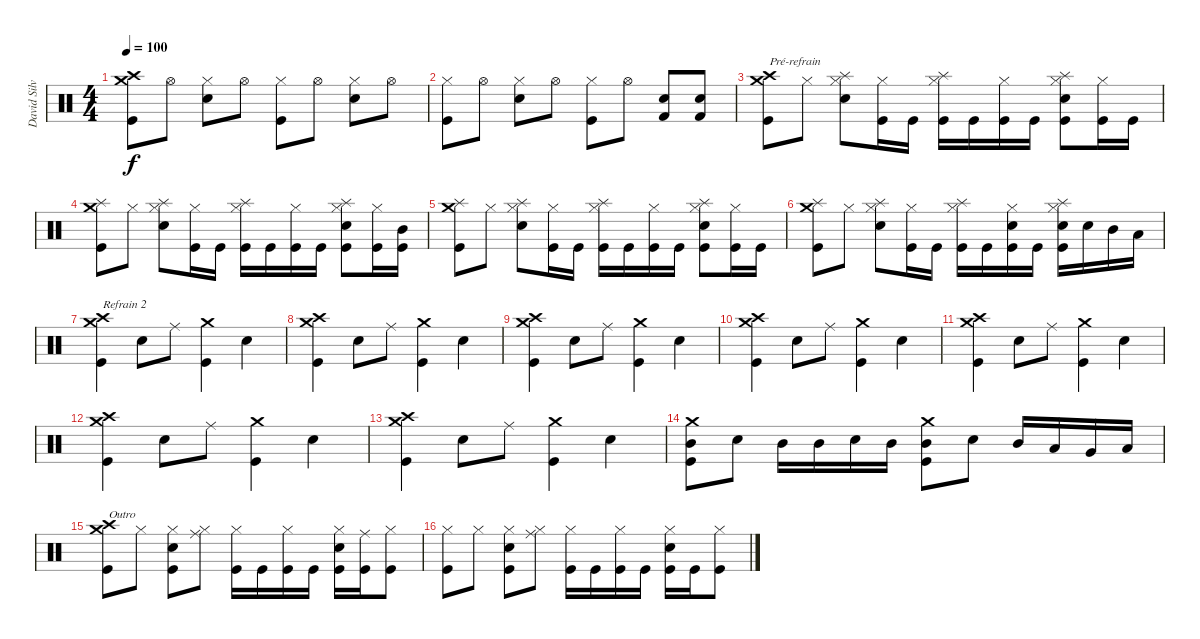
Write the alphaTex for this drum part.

\track ("David Silviera" "David Silv") {instrument percussion}
\staff {score}
\articulation defaults
\ts (4 4)
\tempo 100
\clef neutral
\ks c
("Crash medium (hit)" "Crash high (hit)" "Kick (hit)").8{dy f} "Hi-Hat (open)".8 ("Electric Snare (hit)" "Hi-Hat (closed)").8 "Hi-Hat (open)".8 ("Hi-Hat (closed)" "Kick (hit)").8 "Hi-Hat (open)".8 ("Electric Snare (hit)" "Hi-Hat (closed)").8 "Hi-Hat (open)".8 |
("Hi-Hat (closed)" "Kick (hit)").8 "Hi-Hat (open)".8 ("Electric Snare (hit)" "Hi-Hat (closed)").8 "Hi-Hat (open)".8 ("Hi-Hat (closed)" "Kick (hit)").8 "Hi-Hat (open)".8 ("Kick (hit) 2" "Electric Snare (hit)").8 ("Kick (hit) 2" "Electric Snare (hit)").8 |
("Crash medium (hit)" "Crash high (hit)" "Kick (hit)").8{txt "Pré-refrain"} "Hi-Hat (closed)".8 ("Splash (hit)" "Electric Snare (hit)" "Hi-Hat (closed)").8 ("Hi-Hat (closed)" "Kick (hit)").16 "Kick (hit)".16 ("Splash (hit)" "Hi-Hat (closed)" "Kick (hit)").16 "Kick (hit)".16 ("Hi-Hat (closed)" "Kick (hit)").16 "Kick (hit)".16 ("Splash (hit)" "Electric Snare (hit)" "Hi-Hat (closed)" "Kick (hit)").8 ("Hi-Hat (closed)" "Kick (hit)").16 "Kick (hit)".16 |
("Crash medium (hit)" "Splash (hit)" "Kick (hit)").8 "Hi-Hat (closed)".8 ("Splash (hit)" "Electric Snare (hit)" "Hi-Hat (closed)").8 ("Hi-Hat (closed)" "Kick (hit)").16 "Kick (hit)".16 ("Splash (hit)" "Hi-Hat (closed)" "Kick (hit)").16 "Kick (hit)".16 ("Hi-Hat (closed)" "Kick (hit)").16 "Kick (hit)".16 ("Splash (hit)" "Electric Snare (hit)" "Hi-Hat (closed)" "Kick (hit)").8 ("Hi-Hat (closed)" "Kick (hit)").16 ("Mid Tom (hit)" "Kick (hit)").16 |
("Crash medium (hit)" "Splash (hit)" "Kick (hit)").8 "Hi-Hat (closed)".8 ("Splash (hit)" "Electric Snare (hit)" "Hi-Hat (closed)").8 ("Hi-Hat (closed)" "Kick (hit)").16 "Kick (hit)".16 ("Splash (hit)" "Hi-Hat (closed)" "Kick (hit)").16 "Kick (hit)".16 ("Hi-Hat (closed)" "Kick (hit)").16 "Kick (hit)".16 ("Splash (hit)" "Electric Snare (hit)" "Hi-Hat (closed)" "Kick (hit)").8 ("Hi-Hat (closed)" "Kick (hit)").16 "Kick (hit)".16 |
("Crash medium (hit)" "Splash (hit)" "Kick (hit)").8 "Hi-Hat (closed)".8 ("Splash (hit)" "Electric Snare (hit)" "Hi-Hat (closed)").8 ("Hi-Hat (closed)" "Kick (hit)").16 "Kick (hit)".16 ("Splash (hit)" "Hi-Hat (closed)" "Kick (hit)").16 "Kick (hit)".16 ("Electric Snare (hit)" "Hi-Hat (closed)" "Kick (hit)").16 "Kick (hit)".16 ("Splash (hit)" "Electric Snare (hit)" "Hi-Hat (closed)" "Kick (hit)").16 "Electric Snare (hit)".16 "Mid Tom (hit)".16 "Low Tom (hit)".16 |
("Crash medium (hit)" "Crash high (hit)" "Kick (hit)").4{txt "Refrain 2"} "Electric Snare (hit)".8 "Ride (middle)".8 ("Crash medium (hit)" "Kick (hit)").4 "Electric Snare (hit)".4 |
("Crash medium (hit)" "Crash high (hit)" "Kick (hit)").4 "Electric Snare (hit)".8 "Ride (middle)".8 ("Crash medium (hit)" "Kick (hit)").4 "Electric Snare (hit)".4 |
("Crash medium (hit)" "Crash high (hit)" "Kick (hit)").4 "Electric Snare (hit)".8 "Ride (middle)".8 ("Crash medium (hit)" "Kick (hit)").4 "Electric Snare (hit)".4 |
("Crash medium (hit)" "Crash high (hit)" "Kick (hit)").4 "Electric Snare (hit)".8 "Ride (middle)".8 ("Crash medium (hit)" "Kick (hit)").4 "Electric Snare (hit)".4 |
("Crash medium (hit)" "Crash high (hit)" "Kick (hit)").4 "Electric Snare (hit)".8 "Ride (middle)".8 ("Crash medium (hit)" "Kick (hit)").4 "Electric Snare (hit)".4 |
("Crash medium (hit)" "Crash high (hit)" "Kick (hit)").4 "Electric Snare (hit)".8 "Ride (middle)".8 ("Crash medium (hit)" "Kick (hit)").4 "Electric Snare (hit)".4 |
("Crash medium (hit)" "Crash high (hit)" "Kick (hit)").4 "Electric Snare (hit)".8 "Ride (middle)".8 ("Crash medium (hit)" "Kick (hit)").4 "Electric Snare (hit)".4 |
("Crash medium (hit)" "Mid Tom (hit)" "Kick (hit)").8 "Electric Snare (hit)".8 "Mid Tom (hit)".16 "Mid Tom (hit)".16 "Electric Snare (hit)".16 "Mid Tom (hit)".16 ("Crash medium (hit)" "Mid Tom (hit)" "Kick (hit)").8 "Electric Snare (hit)".8 "Mid Tom (hit)".16 "Low Tom (hit)".16 "Very Low Tom (hit)".16 "Low Floor Tom (hit)".16 |
("Crash medium (hit)" "Crash high (hit)" "Kick (hit)").8{txt "Outro"} "Hi-Hat (closed)".8 ("Electric Snare (hit)" "Hi-Hat (closed)" "Kick (hit)").8 ("Ride (middle)" "Hi-Hat (closed)").8 ("Hi-Hat (closed)" "Kick (hit)").16 "Kick (hit)".16 ("Hi-Hat (closed)" "Kick (hit)").16 "Kick (hit)".16 ("Electric Snare (hit)" "Hi-Hat (closed)" "Kick (hit)").16 ("Ride (middle)" "Kick (hit)").16 ("Hi-Hat (closed)" "Kick (hit)").8 |
("Hi-Hat (closed)" "Kick (hit)").8 "Hi-Hat (closed)".8 ("Electric Snare (hit)" "Hi-Hat (closed)" "Kick (hit)").8 ("Ride (middle)" "Hi-Hat (closed)").8 ("Hi-Hat (closed)" "Kick (hit)").16 "Kick (hit)".16 ("Hi-Hat (closed)" "Kick (hit)").16 "Kick (hit)".16 ("Electric Snare (hit)" "Hi-Hat (closed)" "Kick (hit)").16 "Kick (hit)".16 ("Hi-Hat (closed)" "Kick (hit)").8
